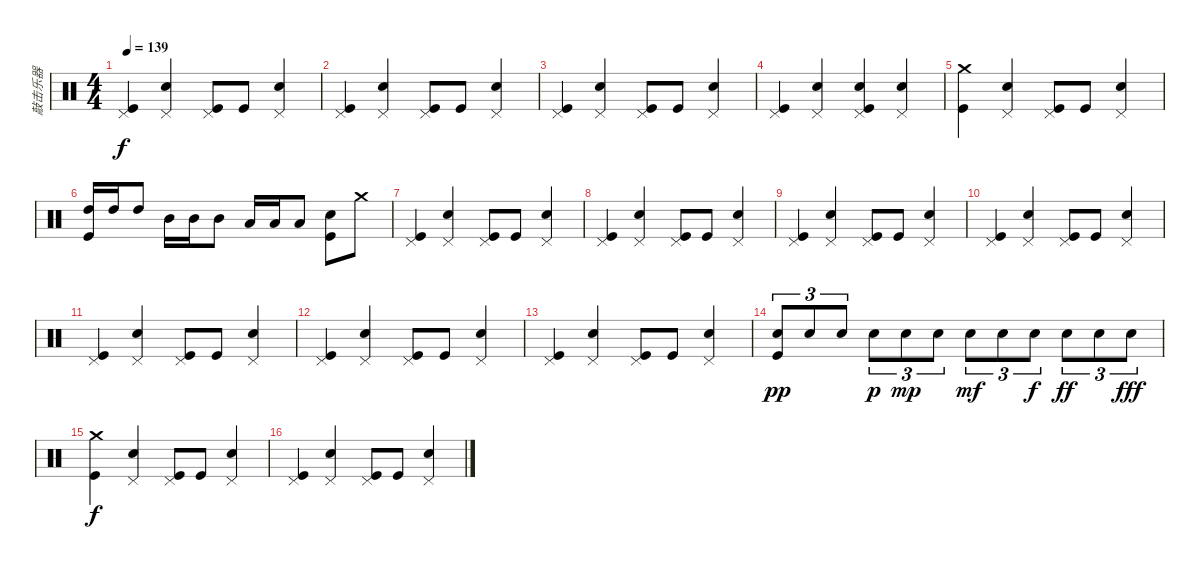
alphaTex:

\track ("敲击乐器" "敲击乐器") {instrument percussion}
\staff {score}
\articulation defaults
\ts (4 4)
\tempo 139
\clef neutral
\ks c
("Pedal Hi-Hat (hit)" "Kick (hit)").4{dy f} ("Pedal Hi-Hat (hit)" "Snare (hit) 2").4 ("Pedal Hi-Hat (hit)" "Kick (hit)").8 "Kick (hit)".8 ("Pedal Hi-Hat (hit)" "Snare (hit) 2").4 |
("Pedal Hi-Hat (hit)" "Kick (hit)").4 ("Pedal Hi-Hat (hit)" "Snare (hit) 2").4 ("Pedal Hi-Hat (hit)" "Kick (hit)").8 "Kick (hit)".8 ("Pedal Hi-Hat (hit)" "Snare (hit) 2").4 |
("Pedal Hi-Hat (hit)" "Kick (hit)").4 ("Pedal Hi-Hat (hit)" "Snare (hit) 2").4 ("Pedal Hi-Hat (hit)" "Kick (hit)").8 "Kick (hit)".8 ("Pedal Hi-Hat (hit)" "Snare (hit) 2").4 |
("Pedal Hi-Hat (hit)" "Kick (hit)").4 ("Pedal Hi-Hat (hit)" "Snare (hit) 2").4 ("Pedal Hi-Hat (hit)" "Snare (hit) 2" "Kick (hit)").4 ("Pedal Hi-Hat (hit)" "Snare (hit) 2").4 |
("Crash medium (hit)" "Kick (hit)").4 ("Pedal Hi-Hat (hit)" "Snare (hit) 2").4 ("Pedal Hi-Hat (hit)" "Kick (hit)").8 "Kick (hit)".8 ("Pedal Hi-Hat (hit)" "Snare (hit) 2").4 |
("High Tom (hit)" "Kick (hit)").16 "High Tom (hit)".16 "High Tom (hit)".8 "Mid Tom (hit)".16 "Mid Tom (hit)".16 "Mid Tom (hit)".8 "Low Tom (hit)".16 "Low Tom (hit)".16 "Low Tom (hit)".8 ("Snare (hit) 2" "Kick (hit)").8 "Crash medium (hit)".8 |
("Pedal Hi-Hat (hit)" "Kick (hit)").4 ("Pedal Hi-Hat (hit)" "Snare (hit) 2").4 ("Pedal Hi-Hat (hit)" "Kick (hit)").8 "Kick (hit)".8 ("Pedal Hi-Hat (hit)" "Snare (hit) 2").4 |
("Pedal Hi-Hat (hit)" "Kick (hit)").4 ("Pedal Hi-Hat (hit)" "Snare (hit) 2").4 ("Pedal Hi-Hat (hit)" "Kick (hit)").8 "Kick (hit)".8 ("Pedal Hi-Hat (hit)" "Snare (hit) 2").4 |
("Pedal Hi-Hat (hit)" "Kick (hit)").4 ("Pedal Hi-Hat (hit)" "Snare (hit) 2").4 ("Pedal Hi-Hat (hit)" "Kick (hit)").8 "Kick (hit)".8 ("Pedal Hi-Hat (hit)" "Snare (hit) 2").4 |
("Pedal Hi-Hat (hit)" "Kick (hit)").4 ("Pedal Hi-Hat (hit)" "Snare (hit) 2").4 ("Pedal Hi-Hat (hit)" "Kick (hit)").8 "Kick (hit)".8 ("Pedal Hi-Hat (hit)" "Snare (hit) 2").4 |
("Pedal Hi-Hat (hit)" "Kick (hit)").4 ("Pedal Hi-Hat (hit)" "Snare (hit) 2").4 ("Pedal Hi-Hat (hit)" "Kick (hit)").8 "Kick (hit)".8 ("Pedal Hi-Hat (hit)" "Snare (hit) 2").4 |
("Pedal Hi-Hat (hit)" "Kick (hit)").4 ("Pedal Hi-Hat (hit)" "Snare (hit) 2").4 ("Pedal Hi-Hat (hit)" "Kick (hit)").8 "Kick (hit)".8 ("Pedal Hi-Hat (hit)" "Snare (hit) 2").4 |
("Pedal Hi-Hat (hit)" "Kick (hit)").4 ("Pedal Hi-Hat (hit)" "Snare (hit) 2").4 ("Pedal Hi-Hat (hit)" "Kick (hit)").8 "Kick (hit)".8 ("Pedal Hi-Hat (hit)" "Snare (hit) 2").4 |
("Snare (hit) 2" "Kick (hit)").8{tu (3 2) dy pp} "Snare (hit) 2".8{tu (3 2)} "Snare (hit) 2".8{tu (3 2)} "Snare (hit) 2".8{tu (3 2) dy p} "Snare (hit) 2".8{tu (3 2) dy mp} "Snare (hit) 2".8{tu (3 2)} "Snare (hit) 2".8{tu (3 2) dy mf} "Snare (hit) 2".8{tu (3 2)} "Snare (hit) 2".8{tu (3 2) dy f} "Snare (hit) 2".8{tu (3 2) dy ff} "Snare (hit) 2".8{tu (3 2)} "Snare (hit) 2".8{tu (3 2) dy fff} |
("Crash medium (hit)" "Kick (hit)").4{dy f} ("Pedal Hi-Hat (hit)" "Snare (hit) 2").4 ("Pedal Hi-Hat (hit)" "Kick (hit)").8 "Kick (hit)".8 ("Pedal Hi-Hat (hit)" "Snare (hit) 2").4 |
("Pedal Hi-Hat (hit)" "Kick (hit)").4 ("Pedal Hi-Hat (hit)" "Snare (hit) 2").4 ("Pedal Hi-Hat (hit)" "Kick (hit)").8 "Kick (hit)".8 ("Pedal Hi-Hat (hit)" "Snare (hit) 2").4
